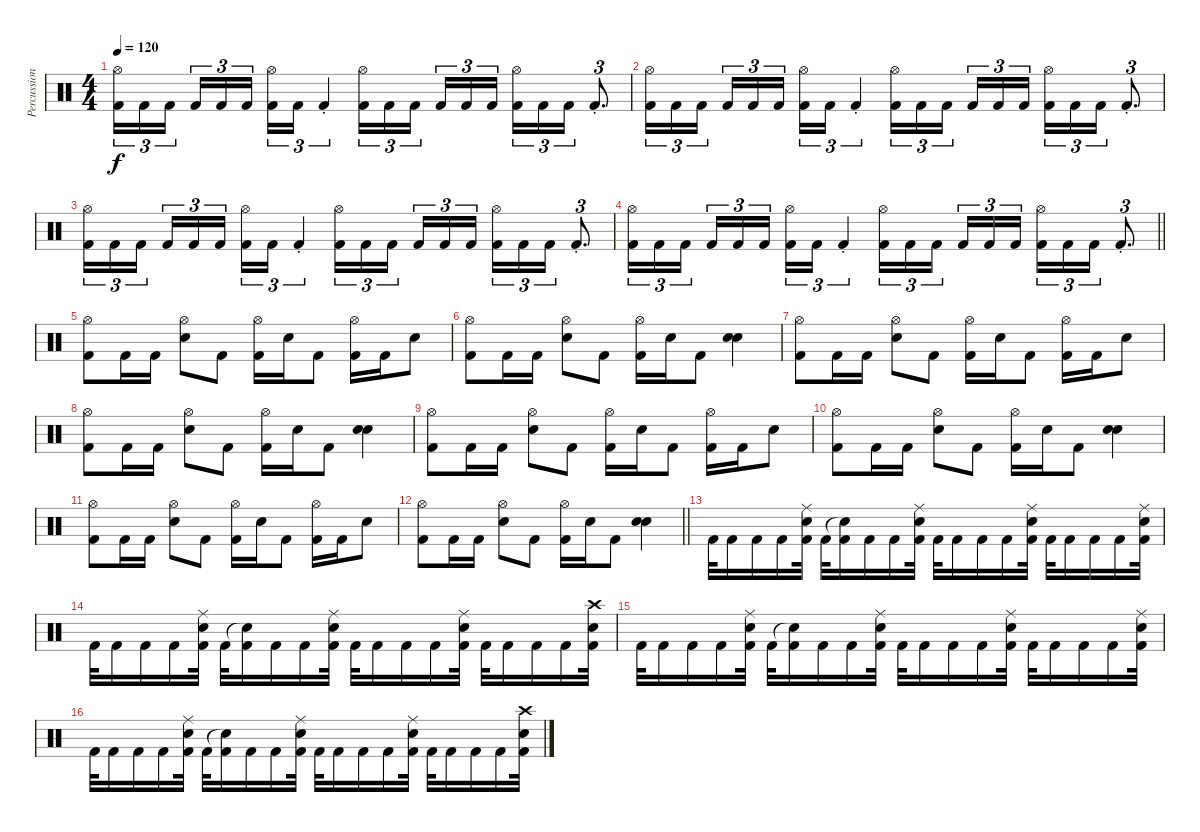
\track ("Percussion" "Percussion") {instrument percussion}
\staff {score}
\articulation defaults
\ts (4 4)
\tempo 120
\clef neutral
\ks c
("Hi-Hat (open)" "Kick (hit) 2").16{tu (3 2) dy f} "Kick (hit) 2".16{tu (3 2)} "Kick (hit) 2".16{tu (3 2) beam splitsecondary} "Kick (hit) 2".16{tu (3 2)} "Kick (hit) 2".16{tu (3 2)} "Kick (hit) 2".16{tu (3 2)} ("Hi-Hat (open)" "Kick (hit) 2").16{tu (3 2)} "Kick (hit) 2".16{tu (3 2)} "Kick (hit) 2"{st}.4{tu (3 2)} ("Hi-Hat (open)" "Kick (hit) 2").16{tu (3 2)} "Kick (hit) 2".16{tu (3 2)} "Kick (hit) 2".16{tu (3 2) beam splitsecondary} "Kick (hit) 2".16{tu (3 2)} "Kick (hit) 2".16{tu (3 2)} "Kick (hit) 2".16{tu (3 2)} ("Hi-Hat (open)" "Kick (hit) 2").16{tu (3 2)} "Kick (hit) 2".16{tu (3 2)} "Kick (hit) 2".16{tu (3 2)} "Kick (hit) 2"{st}.8{d tu (3 2)} |
("Hi-Hat (open)" "Kick (hit) 2").16{tu (3 2)} "Kick (hit) 2".16{tu (3 2)} "Kick (hit) 2".16{tu (3 2) beam splitsecondary} "Kick (hit) 2".16{tu (3 2)} "Kick (hit) 2".16{tu (3 2)} "Kick (hit) 2".16{tu (3 2)} ("Hi-Hat (open)" "Kick (hit) 2").16{tu (3 2)} "Kick (hit) 2".16{tu (3 2)} "Kick (hit) 2"{st}.4{tu (3 2)} ("Hi-Hat (open)" "Kick (hit) 2").16{tu (3 2)} "Kick (hit) 2".16{tu (3 2)} "Kick (hit) 2".16{tu (3 2) beam splitsecondary} "Kick (hit) 2".16{tu (3 2)} "Kick (hit) 2".16{tu (3 2)} "Kick (hit) 2".16{tu (3 2)} ("Hi-Hat (open)" "Kick (hit) 2").16{tu (3 2)} "Kick (hit) 2".16{tu (3 2)} "Kick (hit) 2".16{tu (3 2)} "Kick (hit) 2"{st}.8{d tu (3 2)} |
("Hi-Hat (open)" "Kick (hit) 2").16{tu (3 2)} "Kick (hit) 2".16{tu (3 2)} "Kick (hit) 2".16{tu (3 2) beam splitsecondary} "Kick (hit) 2".16{tu (3 2)} "Kick (hit) 2".16{tu (3 2)} "Kick (hit) 2".16{tu (3 2)} ("Hi-Hat (open)" "Kick (hit) 2").16{tu (3 2)} "Kick (hit) 2".16{tu (3 2)} "Kick (hit) 2"{st}.4{tu (3 2)} ("Hi-Hat (open)" "Kick (hit) 2").16{tu (3 2)} "Kick (hit) 2".16{tu (3 2)} "Kick (hit) 2".16{tu (3 2) beam splitsecondary} "Kick (hit) 2".16{tu (3 2)} "Kick (hit) 2".16{tu (3 2)} "Kick (hit) 2".16{tu (3 2)} ("Hi-Hat (open)" "Kick (hit) 2").16{tu (3 2)} "Kick (hit) 2".16{tu (3 2)} "Kick (hit) 2".16{tu (3 2)} "Kick (hit) 2"{st}.8{d tu (3 2)} |
\barLineRight lightlight
("Hi-Hat (open)" "Kick (hit) 2").16{tu (3 2)} "Kick (hit) 2".16{tu (3 2)} "Kick (hit) 2".16{tu (3 2) beam splitsecondary} "Kick (hit) 2".16{tu (3 2)} "Kick (hit) 2".16{tu (3 2)} "Kick (hit) 2".16{tu (3 2)} ("Hi-Hat (open)" "Kick (hit) 2").16{tu (3 2)} "Kick (hit) 2".16{tu (3 2)} "Kick (hit) 2"{st}.4{tu (3 2)} ("Hi-Hat (open)" "Kick (hit) 2").16{tu (3 2)} "Kick (hit) 2".16{tu (3 2)} "Kick (hit) 2".16{tu (3 2) beam splitsecondary} "Kick (hit) 2".16{tu (3 2)} "Kick (hit) 2".16{tu (3 2)} "Kick (hit) 2".16{tu (3 2)} ("Hi-Hat (open)" "Kick (hit) 2").16{tu (3 2)} "Kick (hit) 2".16{tu (3 2)} "Kick (hit) 2".16{tu (3 2)} "Kick (hit) 2"{st}.8{d tu (3 2)} |
("Hi-Hat (open)" "Kick (hit) 2").8 "Kick (hit) 2".16 "Kick (hit) 2".16 ("Hi-Hat (open)" "Electric Snare (hit)").8 "Kick (hit) 2".8 ("Hi-Hat (open)" "Kick (hit) 2").16 "Electric Snare (hit)".16 "Kick (hit) 2".8 ("Hi-Hat (open)" "Kick (hit) 2").16 "Kick (hit) 2".16 "Electric Snare (hit)".8 |
("Hi-Hat (open)" "Kick (hit) 2").8 "Kick (hit) 2".16 "Kick (hit) 2".16 ("Hi-Hat (open)" "Electric Snare (hit)").8 "Kick (hit) 2".8 ("Hi-Hat (open)" "Kick (hit) 2").16 "Electric Snare (hit)".16 "Kick (hit) 2".8 ("Electric Snare (hit)" "Electric Snare (hit)").4{bd 480} |
("Hi-Hat (open)" "Kick (hit) 2").8 "Kick (hit) 2".16 "Kick (hit) 2".16 ("Hi-Hat (open)" "Electric Snare (hit)").8 "Kick (hit) 2".8 ("Hi-Hat (open)" "Kick (hit) 2").16 "Electric Snare (hit)".16 "Kick (hit) 2".8 ("Hi-Hat (open)" "Kick (hit) 2").16 "Kick (hit) 2".16 "Electric Snare (hit)".8 |
("Hi-Hat (open)" "Kick (hit) 2").8 "Kick (hit) 2".16 "Kick (hit) 2".16 ("Hi-Hat (open)" "Electric Snare (hit)").8 "Kick (hit) 2".8 ("Hi-Hat (open)" "Kick (hit) 2").16 "Electric Snare (hit)".16 "Kick (hit) 2".8 ("Electric Snare (hit)" "Electric Snare (hit)").4{bd 480} |
("Hi-Hat (open)" "Kick (hit) 2").8 "Kick (hit) 2".16 "Kick (hit) 2".16 ("Hi-Hat (open)" "Electric Snare (hit)").8 "Kick (hit) 2".8 ("Hi-Hat (open)" "Kick (hit) 2").16 "Electric Snare (hit)".16 "Kick (hit) 2".8 ("Hi-Hat (open)" "Kick (hit) 2").16 "Kick (hit) 2".16 "Electric Snare (hit)".8 |
("Hi-Hat (open)" "Kick (hit) 2").8 "Kick (hit) 2".16 "Kick (hit) 2".16 ("Hi-Hat (open)" "Electric Snare (hit)").8 "Kick (hit) 2".8 ("Hi-Hat (open)" "Kick (hit) 2").16 "Electric Snare (hit)".16 "Kick (hit) 2".8 ("Electric Snare (hit)" "Electric Snare (hit)").4{bd 480} |
("Hi-Hat (open)" "Kick (hit) 2").8 "Kick (hit) 2".16 "Kick (hit) 2".16 ("Hi-Hat (open)" "Electric Snare (hit)").8 "Kick (hit) 2".8 ("Hi-Hat (open)" "Kick (hit) 2").16 "Electric Snare (hit)".16 "Kick (hit) 2".8 ("Hi-Hat (open)" "Kick (hit) 2").16 "Kick (hit) 2".16 "Electric Snare (hit)".8 |
\barLineRight lightlight
("Hi-Hat (open)" "Kick (hit) 2").8 "Kick (hit) 2".16 "Kick (hit) 2".16 ("Hi-Hat (open)" "Electric Snare (hit)").8 "Kick (hit) 2".8 ("Hi-Hat (open)" "Kick (hit) 2").16 "Electric Snare (hit)".16 "Kick (hit) 2".8 ("Electric Snare (hit)" "Electric Snare (hit)").4{bd 480} |
"Kick (hit) 2".32 "Kick (hit) 2".16 "Kick (hit) 2".16 "Kick (hit) 2".16 ("Ride (middle)" "Electric Snare (hit)" "Kick (hit) 2").32 "Kick (hit) 2".32 ("Electric Snare (hit)"{t} "Kick (hit) 2").16 "Kick (hit) 2".16 "Kick (hit) 2".16 ("Ride (middle)" "Electric Snare (hit)" "Kick (hit) 2").32 "Kick (hit) 2".32 "Kick (hit) 2".16 "Kick (hit) 2".16 "Kick (hit) 2".16 ("Ride (middle)" "Electric Snare (hit)" "Kick (hit) 2").32 "Kick (hit) 2".32 "Kick (hit) 2".16 "Kick (hit) 2".16 "Kick (hit) 2".16 ("Ride (middle)" "Electric Snare (hit)" "Kick (hit) 2").32 |
"Kick (hit) 2".32 "Kick (hit) 2".16 "Kick (hit) 2".16 "Kick (hit) 2".16 ("Ride (middle)" "Electric Snare (hit)" "Kick (hit) 2").32 "Kick (hit) 2".32 ("Electric Snare (hit)"{t} "Kick (hit) 2").16 "Kick (hit) 2".16 "Kick (hit) 2".16 ("Ride (middle)" "Electric Snare (hit)" "Kick (hit) 2").32 "Kick (hit) 2".32 "Kick (hit) 2".16 "Kick (hit) 2".16 "Kick (hit) 2".16 ("Ride (middle)" "Electric Snare (hit)" "Kick (hit) 2").32 "Kick (hit) 2".32 "Kick (hit) 2".16 "Kick (hit) 2".16 "Kick (hit) 2".16 ("Crash high (hit)" "Electric Snare (hit)" "Kick (hit) 2").32 |
"Kick (hit) 2".32 "Kick (hit) 2".16 "Kick (hit) 2".16 "Kick (hit) 2".16 ("Ride (middle)" "Electric Snare (hit)" "Kick (hit) 2").32 "Kick (hit) 2".32 ("Electric Snare (hit)"{t} "Kick (hit) 2").16 "Kick (hit) 2".16 "Kick (hit) 2".16 ("Ride (middle)" "Electric Snare (hit)" "Kick (hit) 2").32 "Kick (hit) 2".32 "Kick (hit) 2".16 "Kick (hit) 2".16 "Kick (hit) 2".16 ("Ride (middle)" "Electric Snare (hit)" "Kick (hit) 2").32 "Kick (hit) 2".32 "Kick (hit) 2".16 "Kick (hit) 2".16 "Kick (hit) 2".16 ("Ride (middle)" "Electric Snare (hit)" "Kick (hit) 2").32 |
"Kick (hit) 2".32 "Kick (hit) 2".16 "Kick (hit) 2".16 "Kick (hit) 2".16 ("Ride (middle)" "Electric Snare (hit)" "Kick (hit) 2").32 "Kick (hit) 2".32 ("Electric Snare (hit)"{t} "Kick (hit) 2").16 "Kick (hit) 2".16 "Kick (hit) 2".16 ("Ride (middle)" "Electric Snare (hit)" "Kick (hit) 2").32 "Kick (hit) 2".32 "Kick (hit) 2".16 "Kick (hit) 2".16 "Kick (hit) 2".16 ("Ride (middle)" "Electric Snare (hit)" "Kick (hit) 2").32 "Kick (hit) 2".32 "Kick (hit) 2".16 "Kick (hit) 2".16 "Kick (hit) 2".16 ("Crash high (hit)" "Electric Snare (hit)" "Kick (hit) 2").32
